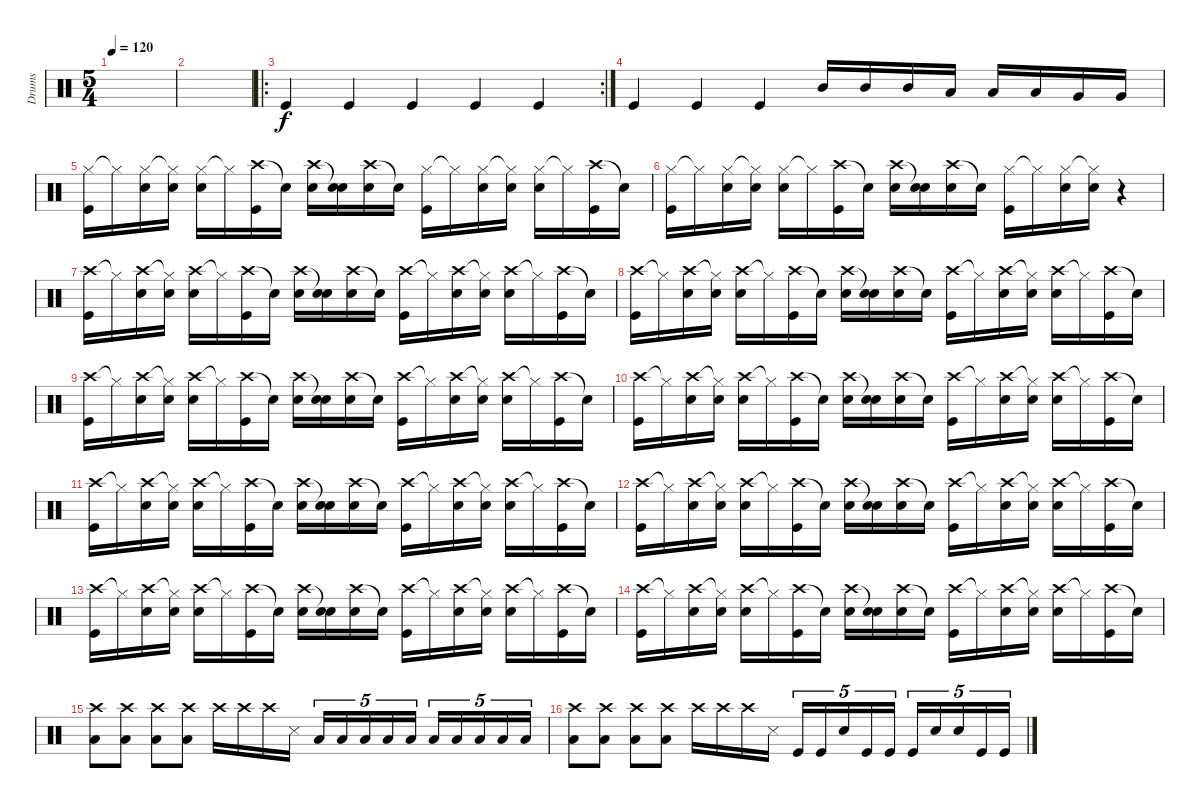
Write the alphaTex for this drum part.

\track ("Drums" "Drums") {instrument percussion}
\staff {score}
\articulation defaults
\ts (5 4)
\tempo 120
\clef neutral
\ks c
|
|
\ro
\rc 2 "Kick (hit)".4 "Kick (hit)".4 "Kick (hit)".4 "Kick (hit)".4 "Kick (hit)".4
|
"Kick (hit)".4 "Kick (hit)".4 "Kick (hit)".4 "Mid Tom (hit)".16 "Mid Tom (hit)".16 "Mid Tom (hit)".16 "Low Tom (hit)".16 "Low Tom (hit)".16 "Low Tom (hit)".16 "Very Low Tom (hit)".16 "Very Low Tom (hit)".16 |
("Hi-Hat (closed)" "Kick (hit)").16 "Hi-Hat (closed)"{t}.16 ("Hi-Hat (closed)" "Snare (hit) 2").16 ("Hi-Hat (closed)"{t} "Snare (hit) 2").16 ("Hi-Hat (closed)" "Snare (hit) 2").16 "Hi-Hat (closed)"{t}.16 ("Crash high (hit)" "Kick (hit)").16 "Snare (hit)"{t}.16 ("Crash high (hit)" "Snare (hit) 2").16 ("Snare (hit)"{t} "Snare (hit) 2").16 ("Crash high (hit)" "Snare (hit) 2").16 "Snare (hit)"{t}.16 ("Hi-Hat (closed)" "Kick (hit)").16 "Hi-Hat (closed)"{t}.16 ("Hi-Hat (closed)" "Snare (hit) 2").16 ("Hi-Hat (closed)"{t} "Snare (hit) 2").16 ("Hi-Hat (closed)" "Snare (hit) 2").16 "Hi-Hat (closed)"{t}.16 ("Crash high (hit)" "Kick (hit)").16 "Snare (hit)"{t}.16 |
("Hi-Hat (closed)" "Kick (hit)").16 "Hi-Hat (closed)"{t}.16 ("Hi-Hat (closed)" "Snare (hit) 2").16 ("Hi-Hat (closed)"{t} "Snare (hit) 2").16 ("Hi-Hat (closed)" "Snare (hit) 2").16 "Hi-Hat (closed)"{t}.16 ("Crash high (hit)" "Kick (hit)").16 "Snare (hit)"{t}.16 ("Crash high (hit)" "Snare (hit) 2").16 ("Snare (hit)"{t} "Snare (hit) 2").16 ("Crash high (hit)" "Snare (hit) 2").16 "Snare (hit)"{t}.16 ("Hi-Hat (closed)" "Kick (hit)").16 "Hi-Hat (closed)"{t}.16 ("Hi-Hat (closed)" "Snare (hit) 2").16 ("Hi-Hat (closed)"{t} "Snare (hit) 2").16 r.4 |
("Crash high (hit)" "Kick (hit)").16 "Hi-Hat (closed)"{t}.16 ("Crash high (hit)" "Snare (hit) 2").16 ("Hi-Hat (closed)"{t} "Snare (hit) 2").16 ("Crash high (hit)" "Snare (hit) 2").16 "Hi-Hat (closed)"{t}.16 ("Crash high (hit)" "Kick (hit)").16 "Snare (hit)"{t}.16 ("Crash high (hit)" "Snare (hit) 2").16 ("Snare (hit)"{t} "Snare (hit) 2").16 ("Crash high (hit)" "Snare (hit) 2").16 "Snare (hit)"{t}.16 ("Crash high (hit)" "Kick (hit)").16 "Hi-Hat (closed)"{t}.16 ("Crash high (hit)" "Snare (hit) 2").16 ("Hi-Hat (closed)"{t} "Snare (hit) 2").16 ("Crash high (hit)" "Snare (hit) 2").16 "Hi-Hat (closed)"{t}.16 ("Crash high (hit)" "Kick (hit)").16 "Snare (hit)"{t}.16 |
("Crash high (hit)" "Kick (hit)").16 "Hi-Hat (closed)"{t}.16 ("Crash high (hit)" "Snare (hit) 2").16 ("Hi-Hat (closed)"{t} "Snare (hit) 2").16 ("Crash high (hit)" "Snare (hit) 2").16 "Hi-Hat (closed)"{t}.16 ("Crash high (hit)" "Kick (hit)").16 "Snare (hit)"{t}.16 ("Crash high (hit)" "Snare (hit) 2").16 ("Snare (hit)"{t} "Snare (hit) 2").16 ("Crash high (hit)" "Snare (hit) 2").16 "Snare (hit)"{t}.16 ("Crash high (hit)" "Kick (hit)").16 "Hi-Hat (closed)"{t}.16 ("Crash high (hit)" "Snare (hit) 2").16 ("Hi-Hat (closed)"{t} "Snare (hit) 2").16 ("Crash high (hit)" "Snare (hit) 2").16 "Hi-Hat (closed)"{t}.16 ("Crash high (hit)" "Kick (hit)").16 "Snare (hit)"{t}.16 |
("Crash high (hit)" "Kick (hit)").16 "Hi-Hat (closed)"{t}.16 ("Crash high (hit)" "Snare (hit) 2").16 ("Hi-Hat (closed)"{t} "Snare (hit) 2").16 ("Crash high (hit)" "Snare (hit) 2").16 "Hi-Hat (closed)"{t}.16 ("Crash high (hit)" "Kick (hit)").16 "Snare (hit)"{t}.16 ("Crash high (hit)" "Snare (hit) 2").16 ("Snare (hit)"{t} "Snare (hit) 2").16 ("Crash high (hit)" "Snare (hit) 2").16 "Snare (hit)"{t}.16 ("Crash high (hit)" "Kick (hit)").16 "Hi-Hat (closed)"{t}.16 ("Crash high (hit)" "Snare (hit) 2").16 ("Hi-Hat (closed)"{t} "Snare (hit) 2").16 ("Crash high (hit)" "Snare (hit) 2").16 "Hi-Hat (closed)"{t}.16 ("Crash high (hit)" "Kick (hit)").16 "Snare (hit)"{t}.16 |
("Crash high (hit)" "Kick (hit)").16 "Hi-Hat (closed)"{t}.16 ("Crash high (hit)" "Snare (hit) 2").16 ("Hi-Hat (closed)"{t} "Snare (hit) 2").16 ("Crash high (hit)" "Snare (hit) 2").16 "Hi-Hat (closed)"{t}.16 ("Crash high (hit)" "Kick (hit)").16 "Snare (hit)"{t}.16 ("Crash high (hit)" "Snare (hit) 2").16 ("Snare (hit)"{t} "Snare (hit) 2").16 ("Crash high (hit)" "Snare (hit) 2").16 "Snare (hit)"{t}.16 ("Crash high (hit)" "Kick (hit)").16 "Hi-Hat (closed)"{t}.16 ("Crash high (hit)" "Snare (hit) 2").16 ("Hi-Hat (closed)"{t} "Snare (hit) 2").16 ("Crash high (hit)" "Snare (hit) 2").16 "Hi-Hat (closed)"{t}.16 ("Crash high (hit)" "Kick (hit)").16 "Snare (hit)"{t}.16 |
("Crash high (hit)" "Kick (hit)").16 "Hi-Hat (closed)"{t}.16 ("Crash high (hit)" "Snare (hit) 2").16 ("Hi-Hat (closed)"{t} "Snare (hit) 2").16 ("Crash high (hit)" "Snare (hit) 2").16 "Hi-Hat (closed)"{t}.16 ("Crash high (hit)" "Kick (hit)").16 "Snare (hit)"{t}.16 ("Crash high (hit)" "Snare (hit) 2").16 ("Snare (hit)"{t} "Snare (hit) 2").16 ("Crash high (hit)" "Snare (hit) 2").16 "Snare (hit)"{t}.16 ("Crash high (hit)" "Kick (hit)").16 "Hi-Hat (closed)"{t}.16 ("Crash high (hit)" "Snare (hit) 2").16 ("Hi-Hat (closed)"{t} "Snare (hit) 2").16 ("Crash high (hit)" "Snare (hit) 2").16 "Hi-Hat (closed)"{t}.16 ("Crash high (hit)" "Kick (hit)").16 "Snare (hit)"{t}.16 |
("Crash high (hit)" "Kick (hit)").16 "Hi-Hat (closed)"{t}.16 ("Crash high (hit)" "Snare (hit) 2").16 ("Hi-Hat (closed)"{t} "Snare (hit) 2").16 ("Crash high (hit)" "Snare (hit) 2").16 "Hi-Hat (closed)"{t}.16 ("Crash high (hit)" "Kick (hit)").16 "Snare (hit)"{t}.16 ("Crash high (hit)" "Snare (hit) 2").16 ("Snare (hit)"{t} "Snare (hit) 2").16 ("Crash high (hit)" "Snare (hit) 2").16 "Snare (hit)"{t}.16 ("Crash high (hit)" "Kick (hit)").16 "Hi-Hat (closed)"{t}.16 ("Crash high (hit)" "Snare (hit) 2").16 ("Hi-Hat (closed)"{t} "Snare (hit) 2").16 ("Crash high (hit)" "Snare (hit) 2").16 "Hi-Hat (closed)"{t}.16 ("Crash high (hit)" "Kick (hit)").16 "Snare (hit)"{t}.16 |
("Crash high (hit)" "Kick (hit)").16 "Hi-Hat (closed)"{t}.16 ("Crash high (hit)" "Snare (hit) 2").16 ("Hi-Hat (closed)"{t} "Snare (hit) 2").16 ("Crash high (hit)" "Snare (hit) 2").16 "Hi-Hat (closed)"{t}.16 ("Crash high (hit)" "Kick (hit)").16 "Snare (hit)"{t}.16 ("Crash high (hit)" "Snare (hit) 2").16 ("Snare (hit)"{t} "Snare (hit) 2").16 ("Crash high (hit)" "Snare (hit) 2").16 "Snare (hit)"{t}.16 ("Crash high (hit)" "Kick (hit)").16 "Hi-Hat (closed)"{t}.16 ("Crash high (hit)" "Snare (hit) 2").16 ("Hi-Hat (closed)"{t} "Snare (hit) 2").16 ("Crash high (hit)" "Snare (hit) 2").16 "Hi-Hat (closed)"{t}.16 ("Crash high (hit)" "Kick (hit)").16 "Snare (hit)"{t}.16 |
("Crash high (hit)" "Kick (hit)").16 "Hi-Hat (closed)"{t}.16 ("Crash high (hit)" "Snare (hit) 2").16 ("Hi-Hat (closed)"{t} "Snare (hit) 2").16 ("Crash high (hit)" "Snare (hit) 2").16 "Hi-Hat (closed)"{t}.16 ("Crash high (hit)" "Kick (hit)").16 "Snare (hit)"{t}.16 ("Crash high (hit)" "Snare (hit) 2").16 ("Snare (hit)"{t} "Snare (hit) 2").16 ("Crash high (hit)" "Snare (hit) 2").16 "Snare (hit)"{t}.16 ("Crash high (hit)" "Kick (hit)").16 "Hi-Hat (closed)"{t}.16 ("Crash high (hit)" "Snare (hit) 2").16 ("Hi-Hat (closed)"{t} "Snare (hit) 2").16 ("Crash high (hit)" "Snare (hit) 2").16 "Hi-Hat (closed)"{t}.16 ("Crash high (hit)" "Kick (hit)").16 "Snare (hit)"{t}.16 |
("Crash high (hit)" "Low Floor Tom (hit)").8 ("Crash high (hit)" "Low Floor Tom (hit)").8 ("Crash high (hit)" "Low Floor Tom (hit)").8 ("Crash high (hit)" "Low Floor Tom (hit)").8 "Crash high (hit)".16 "Crash high (hit)".16 "Crash high (hit)".16 "Snare (side stick) 3".16 "Low Floor Tom (hit)".16{tu (5 4)} "Low Floor Tom (hit)".16{tu (5 4)} "Low Floor Tom (hit)".16{tu (5 4)} "Low Floor Tom (hit)".16{tu (5 4)} "Low Floor Tom (hit)".16{tu (5 4)} "Low Floor Tom (hit)".16{tu (5 4)} "Low Floor Tom (hit)".16{tu (5 4)} "Low Floor Tom (hit)".16{tu (5 4)} "Low Floor Tom (hit)".16{tu (5 4)} "Low Floor Tom (hit)".16{tu (5 4)} |
("Crash high (hit)" "Low Floor Tom (hit)").8 ("Crash high (hit)" "Low Floor Tom (hit)").8 ("Crash high (hit)" "Low Floor Tom (hit)").8 ("Crash high (hit)" "Low Floor Tom (hit)").8 "Crash high (hit)".16 "Crash high (hit)".16 "Crash high (hit)".16 "Snare (side stick) 3".16 "Kick (hit)".16{tu (5 4)} "Kick (hit)".16{tu (5 4)} "Snare (hit) 2".16{tu (5 4)} "Kick (hit)".16{tu (5 4)} "Kick (hit)".16{tu (5 4)} "Kick (hit)".16{tu (5 4)} "Snare (hit) 2".16{tu (5 4)} "Snare (hit) 2".16{tu (5 4)} "Kick (hit)".16{tu (5 4)} "Kick (hit)".16{tu (5 4)}
